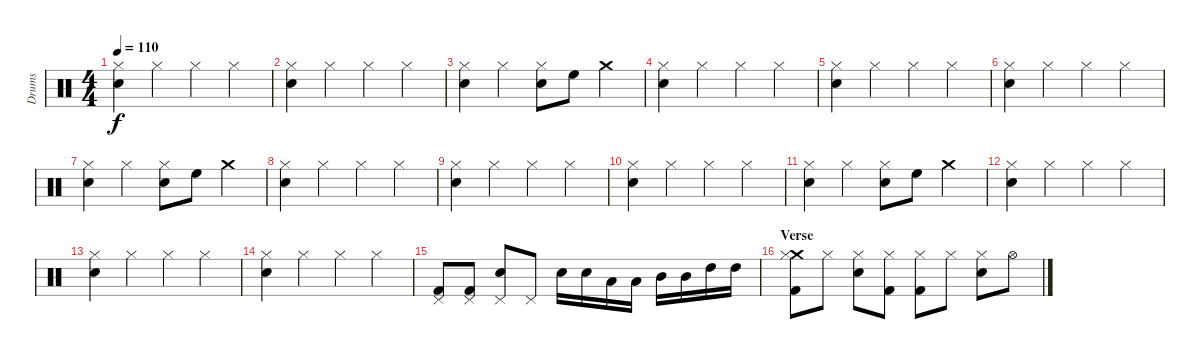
\track ("Drums" "Drums") {instrument percussion}
\staff {score}
\articulation defaults
\ts (4 4)
\tempo 110
\clef neutral
\ks c
("Snare (hit) 2" "Hi-Hat (closed)").4{dy f} "Hi-Hat (closed)".4 "Hi-Hat (closed)".4 "Hi-Hat (closed)".4 |
("Snare (hit) 2" "Hi-Hat (closed)").4 "Hi-Hat (closed)".4 "Hi-Hat (closed)".4 "Hi-Hat (closed)".4 |
("Snare (hit) 2" "Hi-Hat (closed)").4 "Hi-Hat (closed)".4 ("Snare (hit) 2" "Hi-Hat (closed)").8 "High Floor Tom (hit)".8 "Crash medium (hit)".4 |
("Snare (hit) 2" "Hi-Hat (closed)").4 "Hi-Hat (closed)".4 "Hi-Hat (closed)".4 "Hi-Hat (closed)".4 |
("Snare (hit) 2" "Hi-Hat (closed)").4 "Hi-Hat (closed)".4 "Hi-Hat (closed)".4 "Hi-Hat (closed)".4 |
("Snare (hit) 2" "Hi-Hat (closed)").4 "Hi-Hat (closed)".4 "Hi-Hat (closed)".4 "Hi-Hat (closed)".4 |
("Snare (hit) 2" "Hi-Hat (closed)").4 "Hi-Hat (closed)".4 ("Snare (hit) 2" "Hi-Hat (closed)").8 "High Floor Tom (hit)".8 "Crash medium (hit)".4 |
("Snare (hit) 2" "Hi-Hat (closed)").4 "Hi-Hat (closed)".4 "Hi-Hat (closed)".4 "Hi-Hat (closed)".4 |
("Snare (hit) 2" "Hi-Hat (closed)").4 "Hi-Hat (closed)".4 "Hi-Hat (closed)".4 "Hi-Hat (closed)".4 |
("Snare (hit) 2" "Hi-Hat (closed)").4 "Hi-Hat (closed)".4 "Hi-Hat (closed)".4 "Hi-Hat (closed)".4 |
("Snare (hit) 2" "Hi-Hat (closed)").4 "Hi-Hat (closed)".4 ("Snare (hit) 2" "Hi-Hat (closed)").8 "High Floor Tom (hit)".8 "Crash medium (hit)".4 |
("Snare (hit) 2" "Hi-Hat (closed)").4 "Hi-Hat (closed)".4 "Hi-Hat (closed)".4 "Hi-Hat (closed)".4 |
("Snare (hit) 2" "Hi-Hat (closed)").4 "Hi-Hat (closed)".4 "Hi-Hat (closed)".4 "Hi-Hat (closed)".4 |
("Snare (hit) 2" "Hi-Hat (closed)").4 "Hi-Hat (closed)".4 "Hi-Hat (closed)".4 "Hi-Hat (closed)".4 |
("Pedal Hi-Hat (hit)" "Kick (hit) 2").8 ("Pedal Hi-Hat (hit)" "Kick (hit) 2").8 ("Pedal Hi-Hat (hit)" "Snare (hit) 2").8 "Pedal Hi-Hat (hit)".8 "Snare (hit) 2".16 "Snare (hit) 2".16 "Low Tom (hit)".16 "Low Tom (hit)".16 "Mid Tom (hit)".16 "Mid Tom (hit)".16 "High Tom (hit)".16 "High Tom (hit)".16 |
\section ("" "Verse")
("Crash medium (hit)" "Hi-Hat (closed)" "Kick (hit) 2").8 "Hi-Hat (closed)".8 ("Hi-Hat (closed)" "Snare (hit) 2").8 ("Hi-Hat (closed)" "Kick (hit) 2").8 ("Hi-Hat (closed)" "Kick (hit) 2").8 "Hi-Hat (closed)".8 ("Hi-Hat (closed)" "Snare (hit) 2").8 "Hi-Hat (open)".8
